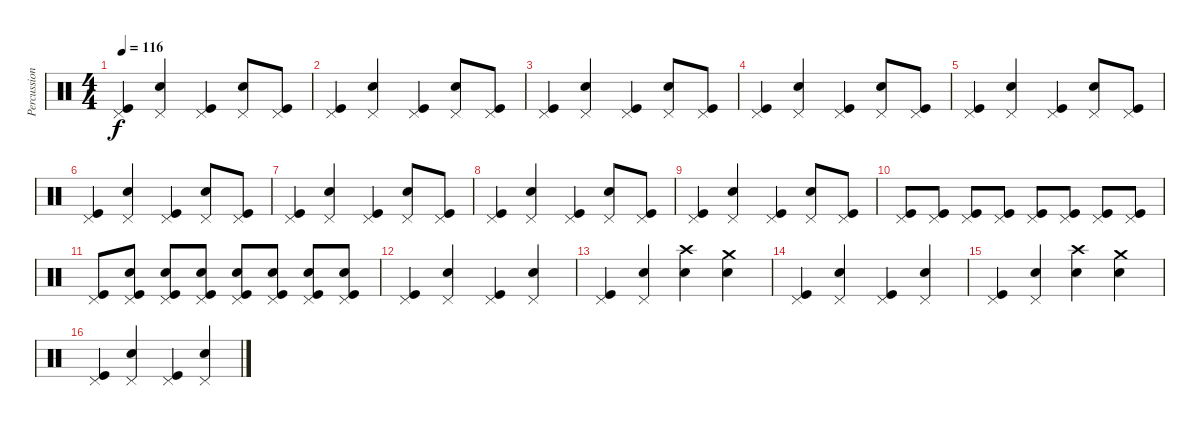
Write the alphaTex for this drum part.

\track ("Percussions" "Percussion") {instrument percussion}
\staff {score}
\articulation defaults
\ts (4 4)
\tempo 116
\clef neutral
\ks c
("Pedal Hi-Hat (hit)" "Kick (hit)").4{dy f} ("Pedal Hi-Hat (hit)" "Electric Snare (hit)").4 ("Pedal Hi-Hat (hit)" "Kick (hit)").4 ("Pedal Hi-Hat (hit)" "Electric Snare (hit)").8 ("Pedal Hi-Hat (hit)" "Kick (hit)").8 |
("Pedal Hi-Hat (hit)" "Kick (hit)").4 ("Pedal Hi-Hat (hit)" "Electric Snare (hit)").4 ("Pedal Hi-Hat (hit)" "Kick (hit)").4 ("Pedal Hi-Hat (hit)" "Electric Snare (hit)").8 ("Pedal Hi-Hat (hit)" "Kick (hit)").8 |
("Pedal Hi-Hat (hit)" "Kick (hit)").4 ("Pedal Hi-Hat (hit)" "Electric Snare (hit)").4 ("Pedal Hi-Hat (hit)" "Kick (hit)").4 ("Pedal Hi-Hat (hit)" "Electric Snare (hit)").8 ("Pedal Hi-Hat (hit)" "Kick (hit)").8 |
("Pedal Hi-Hat (hit)" "Kick (hit)").4 ("Pedal Hi-Hat (hit)" "Electric Snare (hit)").4 ("Pedal Hi-Hat (hit)" "Kick (hit)").4 ("Pedal Hi-Hat (hit)" "Electric Snare (hit)").8 ("Pedal Hi-Hat (hit)" "Kick (hit)").8 |
("Pedal Hi-Hat (hit)" "Kick (hit)").4 ("Pedal Hi-Hat (hit)" "Electric Snare (hit)").4 ("Pedal Hi-Hat (hit)" "Kick (hit)").4 ("Pedal Hi-Hat (hit)" "Electric Snare (hit)").8 ("Pedal Hi-Hat (hit)" "Kick (hit)").8 |
("Pedal Hi-Hat (hit)" "Kick (hit)").4 ("Pedal Hi-Hat (hit)" "Electric Snare (hit)").4 ("Pedal Hi-Hat (hit)" "Kick (hit)").4 ("Pedal Hi-Hat (hit)" "Electric Snare (hit)").8 ("Pedal Hi-Hat (hit)" "Kick (hit)").8 |
("Pedal Hi-Hat (hit)" "Kick (hit)").4 ("Pedal Hi-Hat (hit)" "Electric Snare (hit)").4 ("Pedal Hi-Hat (hit)" "Kick (hit)").4 ("Pedal Hi-Hat (hit)" "Electric Snare (hit)").8 ("Pedal Hi-Hat (hit)" "Kick (hit)").8 |
("Pedal Hi-Hat (hit)" "Kick (hit)").4 ("Pedal Hi-Hat (hit)" "Electric Snare (hit)").4 ("Pedal Hi-Hat (hit)" "Kick (hit)").4 ("Pedal Hi-Hat (hit)" "Electric Snare (hit)").8 ("Pedal Hi-Hat (hit)" "Kick (hit)").8 |
("Pedal Hi-Hat (hit)" "Kick (hit)").4 ("Pedal Hi-Hat (hit)" "Electric Snare (hit)").4 ("Pedal Hi-Hat (hit)" "Kick (hit)").4 ("Pedal Hi-Hat (hit)" "Electric Snare (hit)").8 ("Pedal Hi-Hat (hit)" "Kick (hit)").8 |
("Kick (hit)" "Pedal Hi-Hat (hit)").8 ("Kick (hit)" "Pedal Hi-Hat (hit)").8 ("Kick (hit)" "Pedal Hi-Hat (hit)").8 ("Kick (hit)" "Pedal Hi-Hat (hit)").8 ("Kick (hit)" "Pedal Hi-Hat (hit)").8 ("Pedal Hi-Hat (hit)" "Kick (hit)").8 ("Kick (hit)" "Pedal Hi-Hat (hit)").8 ("Pedal Hi-Hat (hit)" "Kick (hit)").8 |
("Pedal Hi-Hat (hit)" "Kick (hit)").8 ("Snare (hit) 2" "Pedal Hi-Hat (hit)" "Kick (hit)").8 ("Snare (hit) 2" "Pedal Hi-Hat (hit)" "Kick (hit)").8 ("Snare (hit) 2" "Pedal Hi-Hat (hit)" "Kick (hit)").8 ("Snare (hit) 2" "Pedal Hi-Hat (hit)" "Kick (hit)").8 ("Snare (hit) 2" "Pedal Hi-Hat (hit)" "Kick (hit)").8 ("Snare (hit) 2" "Pedal Hi-Hat (hit)" "Kick (hit)").8 ("Snare (hit) 2" "Pedal Hi-Hat (hit)" "Kick (hit)").8 |
("Pedal Hi-Hat (hit)" "Kick (hit)").4 ("Pedal Hi-Hat (hit)" "Electric Snare (hit)").4 ("Pedal Hi-Hat (hit)" "Kick (hit)").4 ("Pedal Hi-Hat (hit)" "Electric Snare (hit)").4 |
("Pedal Hi-Hat (hit)" "Kick (hit)").4 ("Pedal Hi-Hat (hit)" "Electric Snare (hit)").4 ("Electric Snare (hit)" "Crash high (hit)").4 ("Crash medium (hit)" "Electric Snare (hit)").4 |
("Pedal Hi-Hat (hit)" "Kick (hit)").4 ("Pedal Hi-Hat (hit)" "Electric Snare (hit)").4 ("Pedal Hi-Hat (hit)" "Kick (hit)").4 ("Pedal Hi-Hat (hit)" "Electric Snare (hit)").4 |
("Pedal Hi-Hat (hit)" "Kick (hit)").4 ("Pedal Hi-Hat (hit)" "Electric Snare (hit)").4 ("Electric Snare (hit)" "Crash high (hit)").4 ("Crash medium (hit)" "Electric Snare (hit)").4 |
("Pedal Hi-Hat (hit)" "Kick (hit)").4 ("Pedal Hi-Hat (hit)" "Electric Snare (hit)").4 ("Pedal Hi-Hat (hit)" "Kick (hit)").4 ("Pedal Hi-Hat (hit)" "Electric Snare (hit)").4
